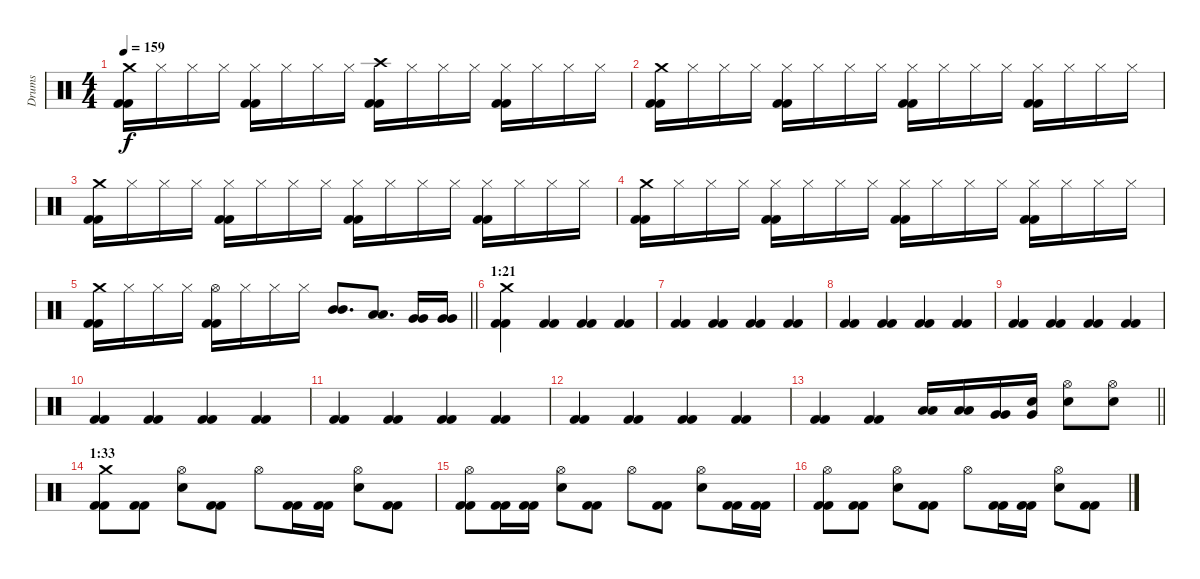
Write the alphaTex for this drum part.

\track ("Drums" "Drums") {instrument percussion}
\staff {score}
\articulation defaults
\ts (4 4)
\tempo 159
\clef neutral
\ks c
("Crash medium (hit)" "Kick (hit) 2" "Kick (hit) 2").16{dy f} "Hi-Hat (closed)".16 "Hi-Hat (closed)".16 "Hi-Hat (closed)".16 ("Hi-Hat (closed)" "Kick (hit) 2" "Kick (hit) 2").16 "Hi-Hat (closed)".16 "Hi-Hat (closed)".16 "Hi-Hat (closed)".16 ("Crash high (hit)" "Kick (hit) 2" "Kick (hit) 2").16 "Hi-Hat (closed)".16 "Hi-Hat (closed)".16 "Hi-Hat (closed)".16 ("Hi-Hat (closed)" "Kick (hit) 2" "Kick (hit) 2").16 "Hi-Hat (closed)".16 "Hi-Hat (closed)".16 "Hi-Hat (closed)".16 |
("Crash medium (hit)" "Kick (hit) 2" "Kick (hit) 2").16 "Hi-Hat (closed)".16 "Hi-Hat (closed)".16 "Hi-Hat (closed)".16 ("Hi-Hat (closed)" "Kick (hit) 2" "Kick (hit) 2").16 "Hi-Hat (closed)".16 "Hi-Hat (closed)".16 "Hi-Hat (closed)".16 ("Hi-Hat (closed)" "Kick (hit) 2" "Kick (hit) 2").16 "Hi-Hat (closed)".16 "Hi-Hat (closed)".16 "Hi-Hat (closed)".16 ("Hi-Hat (closed)" "Kick (hit) 2" "Kick (hit) 2").16 "Hi-Hat (closed)".16 "Hi-Hat (closed)".16 "Hi-Hat (closed)".16 |
("Crash medium (hit)" "Kick (hit) 2" "Kick (hit) 2").16 "Hi-Hat (closed)".16 "Hi-Hat (closed)".16 "Hi-Hat (closed)".16 ("Hi-Hat (closed)" "Kick (hit) 2" "Kick (hit) 2").16 "Hi-Hat (closed)".16 "Hi-Hat (closed)".16 "Hi-Hat (closed)".16 ("Hi-Hat (closed)" "Kick (hit) 2" "Kick (hit) 2").16 "Hi-Hat (closed)".16 "Hi-Hat (closed)".16 "Hi-Hat (closed)".16 ("Hi-Hat (closed)" "Kick (hit) 2" "Kick (hit) 2").16 "Hi-Hat (closed)".16 "Hi-Hat (closed)".16 "Hi-Hat (closed)".16 |
("Crash medium (hit)" "Kick (hit) 2" "Kick (hit) 2").16 "Hi-Hat (closed)".16 "Hi-Hat (closed)".16 "Hi-Hat (closed)".16 ("Hi-Hat (closed)" "Kick (hit) 2" "Kick (hit) 2").16 "Hi-Hat (closed)".16 "Hi-Hat (closed)".16 "Hi-Hat (closed)".16 ("Hi-Hat (closed)" "Kick (hit) 2" "Kick (hit) 2").16 "Hi-Hat (closed)".16 "Hi-Hat (closed)".16 "Hi-Hat (closed)".16 ("Hi-Hat (closed)" "Kick (hit) 2" "Kick (hit) 2").16 "Hi-Hat (closed)".16 "Hi-Hat (closed)".16 "Hi-Hat (closed)".16 |
\barLineRight lightlight
("Crash medium (hit)" "Kick (hit) 2" "Kick (hit) 2").16 "Hi-Hat (closed)".16 "Hi-Hat (closed)".16 "Hi-Hat (closed)".16 ("Hi-Hat (open)" "Kick (hit) 2" "Kick (hit) 2").16 "Hi-Hat (closed)".16 "Hi-Hat (closed)".16 "Hi-Hat (closed)".16 ("Mid Tom (hit)" "Mid Tom (hit)").8{d} ("Low Tom (hit)" "Low Tom (hit)").8{d} ("Very Low Tom (hit)" "Very Low Tom (hit)").16 ("Very Low Tom (hit)" "Very Low Tom (hit)").16 |
\section ("" "1:21")
("Crash medium (hit)" "Kick (hit) 2" "Kick (hit) 2").4 ("Kick (hit) 2" "Kick (hit) 2").4 ("Kick (hit) 2" "Kick (hit) 2").4 ("Kick (hit) 2" "Kick (hit) 2").4 |
("Kick (hit) 2" "Kick (hit) 2").4 ("Kick (hit) 2" "Kick (hit) 2").4 ("Kick (hit) 2" "Kick (hit) 2").4 ("Kick (hit) 2" "Kick (hit) 2").4 |
("Kick (hit) 2" "Kick (hit) 2").4 ("Kick (hit) 2" "Kick (hit) 2").4 ("Kick (hit) 2" "Kick (hit) 2").4 ("Kick (hit) 2" "Kick (hit) 2").4 |
("Kick (hit) 2" "Kick (hit) 2").4 ("Kick (hit) 2" "Kick (hit) 2").4 ("Kick (hit) 2" "Kick (hit) 2").4 ("Kick (hit) 2" "Kick (hit) 2").4 |
("Kick (hit) 2" "Kick (hit) 2").4 ("Kick (hit) 2" "Kick (hit) 2").4 ("Kick (hit) 2" "Kick (hit) 2").4 ("Kick (hit) 2" "Kick (hit) 2").4 |
("Kick (hit) 2" "Kick (hit) 2").4 ("Kick (hit) 2" "Kick (hit) 2").4 ("Kick (hit) 2" "Kick (hit) 2").4 ("Kick (hit) 2" "Kick (hit) 2").4 |
("Kick (hit) 2" "Kick (hit) 2").4 ("Kick (hit) 2" "Kick (hit) 2").4 ("Kick (hit) 2" "Kick (hit) 2").4 ("Kick (hit) 2" "Kick (hit) 2").4 |
\barLineRight lightlight
("Kick (hit) 2" "Kick (hit) 2").4 ("Kick (hit) 2" "Kick (hit) 2").4 ("Low Tom (hit)" "Low Tom (hit)").16 ("Low Tom (hit)" "Low Tom (hit)").16 ("Very Low Tom (hit)" "Very Low Tom (hit)").16 ("Very Low Tom (hit)" "Metronome (bell)").16 ("Hi-Hat (open)" "Electric Snare (hit)").8 ("Hi-Hat (open)" "Electric Snare (hit)").8 |
\section ("" "1:33")
("Crash medium (hit)" "Kick (hit) 2" "Kick (hit) 2").8 ("Kick (hit) 2" "Kick (hit) 2").8 ("Hi-Hat (open)" "Electric Snare (hit)").8 ("Kick (hit) 2" "Kick (hit) 2").8 "Hi-Hat (open)".8 ("Kick (hit) 2" "Kick (hit) 2").16 ("Kick (hit) 2" "Kick (hit) 2").16 ("Hi-Hat (open)" "Electric Snare (hit)").8 ("Kick (hit) 2" "Kick (hit) 2").8 |
("Hi-Hat (open)" "Kick (hit) 2" "Kick (hit) 2").8 ("Kick (hit) 2" "Kick (hit) 2").16 ("Kick (hit) 2" "Kick (hit) 2").16 ("Hi-Hat (open)" "Electric Snare (hit)").8 ("Kick (hit) 2" "Kick (hit) 2").8 "Hi-Hat (open)".8 ("Kick (hit) 2" "Kick (hit) 2").8 ("Hi-Hat (open)" "Electric Snare (hit)").8 ("Kick (hit) 2" "Kick (hit) 2").16 ("Kick (hit) 2" "Kick (hit) 2").16 |
("Hi-Hat (open)" "Kick (hit) 2" "Kick (hit) 2").8 ("Kick (hit) 2" "Kick (hit) 2").8 ("Hi-Hat (open)" "Electric Snare (hit)").8 ("Kick (hit) 2" "Kick (hit) 2").8 "Hi-Hat (open)".8 ("Kick (hit) 2" "Kick (hit) 2").16 ("Kick (hit) 2" "Kick (hit) 2").16 ("Hi-Hat (open)" "Electric Snare (hit)").8 ("Kick (hit) 2" "Kick (hit) 2").8
